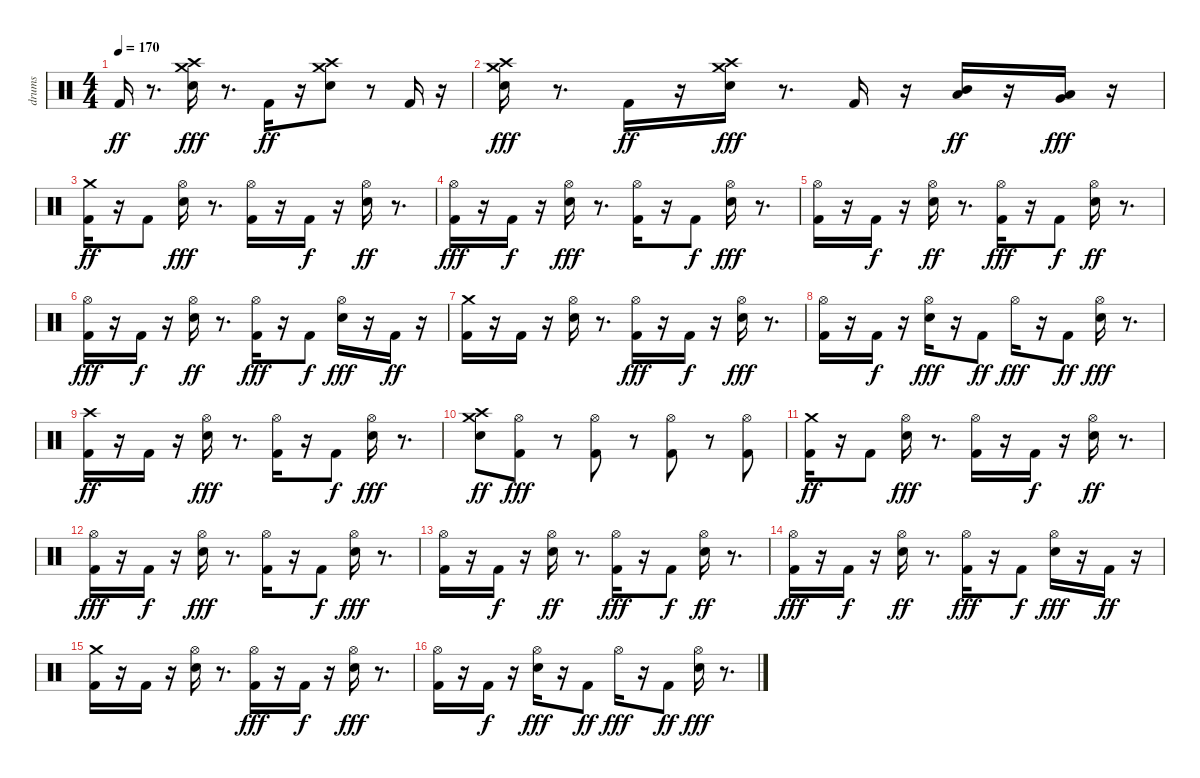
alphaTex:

\track ("drums" "drums") {instrument percussion}
\staff {score}
\articulation defaults
\ts (4 4)
\tempo 170
\clef neutral
\ks c "Kick (hit) 2".16{dy ff}
r.8{d} ("Snare (hit) 2" "Crash high (hit)" "Crash medium (hit)").16{dy fff} r.8{d} "Kick (hit) 2".16{dy ff} r.16 ("Snare (hit) 2" "Crash high (hit)" "Crash medium (hit)").8 r.8 "Kick (hit) 2".16 r.16 |
("Snare (hit) 2" "Crash high (hit)" "Crash medium (hit)").16{dy fff} r.8{d} "Kick (hit) 2".16{dy ff} r.16 ("Snare (hit) 2" "Crash medium (hit)" "Crash high (hit)").16{dy fff} r.8{d} "Kick (hit) 2".16 r.16 ("Mid Tom (hit)" "Low Tom (hit)").16{dy ff} r.16 ("Very Low Tom (hit)" "Low Tom (hit)").16{dy fff} r.16 |
("Kick (hit) 2" "Crash medium (hit)").16{dy ff} r.16 "Kick (hit) 2".8 ("Hi-Hat (open)" "Snare (hit) 2").16{dy fff} r.8{d} ("Kick (hit) 2" "Hi-Hat (open)").16 r.16 "Kick (hit) 2".16{dy f} r.16 ("Hi-Hat (open)" "Snare (hit) 2").16{dy ff} r.8{d} |
("Hi-Hat (open)" "Kick (hit) 2").16{dy fff} r.16 "Kick (hit) 2".16{dy f} r.16 ("Snare (hit) 2" "Hi-Hat (open)").16{dy fff} r.8{d} ("Kick (hit) 2" "Hi-Hat (open)").16 r.16 "Kick (hit) 2".8{dy f} ("Snare (hit) 2" "Hi-Hat (open)").16{dy fff} r.8{d} |
("Kick (hit) 2" "Hi-Hat (open)").16 r.16 "Kick (hit) 2".16{dy f} r.16 ("Hi-Hat (open)" "Snare (hit) 2").16{dy ff} r.8{d} ("Kick (hit) 2" "Hi-Hat (open)").16{dy fff} r.16 "Kick (hit) 2".8{dy f} ("Hi-Hat (open)" "Snare (hit) 2").16{dy ff} r.8{d} |
("Kick (hit) 2" "Hi-Hat (open)").16{dy fff} r.16 "Kick (hit) 2".16{dy f} r.16 ("Hi-Hat (open)" "Snare (hit) 2").16{dy ff} r.8{d} ("Kick (hit) 2" "Hi-Hat (open)").16{dy fff} r.16 "Kick (hit) 2".8{dy f} ("Snare (hit) 2" "Hi-Hat (open)").16{dy fff} r.16 "Kick (hit) 2".16{dy ff} r.16 |
("Crash medium (hit)" "Kick (hit) 2").16 r.16 "Kick (hit) 2".16 r.16 ("Snare (hit) 2" "Hi-Hat (open)").16 r.8{d} ("Kick (hit) 2" "Hi-Hat (open)").16{dy fff} r.16 "Kick (hit) 2".16{dy f} r.16 ("Snare (hit) 2" "Hi-Hat (open)").16{dy fff} r.8{d} |
("Kick (hit) 2" "Hi-Hat (open)").16 r.16 "Kick (hit) 2".16{dy f} r.16 ("Snare (hit) 2" "Hi-Hat (open)").16{dy fff} r.16 "Kick (hit) 2".8{dy ff} "Hi-Hat (open)".16{dy fff} r.16 "Kick (hit) 2".8{dy ff} ("Snare (hit) 2" "Hi-Hat (open)").16{dy fff} r.8{d} |
("Crash high (hit)" "Kick (hit) 2").16{dy ff} r.16 "Kick (hit) 2".16 r.16 ("Hi-Hat (open)" "Snare (hit) 2").16{dy fff} r.8{d} ("Kick (hit) 2" "Hi-Hat (open)").16 r.16 "Kick (hit) 2".8{dy f} ("Snare (hit) 2" "Hi-Hat (open)").16{dy fff} r.8{d} |
("Snare (hit) 2" "Crash high (hit)" "Crash medium (hit)").8{dy ff} ("Hi-Hat (open)" "Kick (hit) 2").8{dy fff} r.8 ("Hi-Hat (open)" "Kick (hit) 2").8 r.8 ("Hi-Hat (open)" "Kick (hit) 2").8 r.8 ("Hi-Hat (open)" "Kick (hit) 2").8 |
("Kick (hit) 2" "Crash medium (hit)").16{dy ff} r.16 "Kick (hit) 2".8 ("Hi-Hat (open)" "Snare (hit) 2").16{dy fff} r.8{d} ("Kick (hit) 2" "Hi-Hat (open)").16 r.16 "Kick (hit) 2".16{dy f} r.16 ("Hi-Hat (open)" "Snare (hit) 2").16{dy ff} r.8{d} |
("Hi-Hat (open)" "Kick (hit) 2").16{dy fff} r.16 "Kick (hit) 2".16{dy f} r.16 ("Snare (hit) 2" "Hi-Hat (open)").16{dy fff} r.8{d} ("Kick (hit) 2" "Hi-Hat (open)").16 r.16 "Kick (hit) 2".8{dy f} ("Snare (hit) 2" "Hi-Hat (open)").16{dy fff} r.8{d} |
("Kick (hit) 2" "Hi-Hat (open)").16 r.16 "Kick (hit) 2".16{dy f} r.16 ("Hi-Hat (open)" "Snare (hit) 2").16{dy ff} r.8{d} ("Kick (hit) 2" "Hi-Hat (open)").16{dy fff} r.16 "Kick (hit) 2".8{dy f} ("Hi-Hat (open)" "Snare (hit) 2").16{dy ff} r.8{d} |
("Kick (hit) 2" "Hi-Hat (open)").16{dy fff} r.16 "Kick (hit) 2".16{dy f} r.16 ("Hi-Hat (open)" "Snare (hit) 2").16{dy ff} r.8{d} ("Kick (hit) 2" "Hi-Hat (open)").16{dy fff} r.16 "Kick (hit) 2".8{dy f} ("Snare (hit) 2" "Hi-Hat (open)").16{dy fff} r.16 "Kick (hit) 2".16{dy ff} r.16 |
("Crash medium (hit)" "Kick (hit) 2").16 r.16 "Kick (hit) 2".16 r.16 ("Snare (hit) 2" "Hi-Hat (open)").16 r.8{d} ("Kick (hit) 2" "Hi-Hat (open)").16{dy fff} r.16 "Kick (hit) 2".16{dy f} r.16 ("Snare (hit) 2" "Hi-Hat (open)").16{dy fff} r.8{d} |
("Kick (hit) 2" "Hi-Hat (open)").16 r.16 "Kick (hit) 2".16{dy f} r.16 ("Snare (hit) 2" "Hi-Hat (open)").16{dy fff} r.16 "Kick (hit) 2".8{dy ff} "Hi-Hat (open)".16{dy fff} r.16 "Kick (hit) 2".8{dy ff} ("Snare (hit) 2" "Hi-Hat (open)").16{dy fff} r.8{d}
